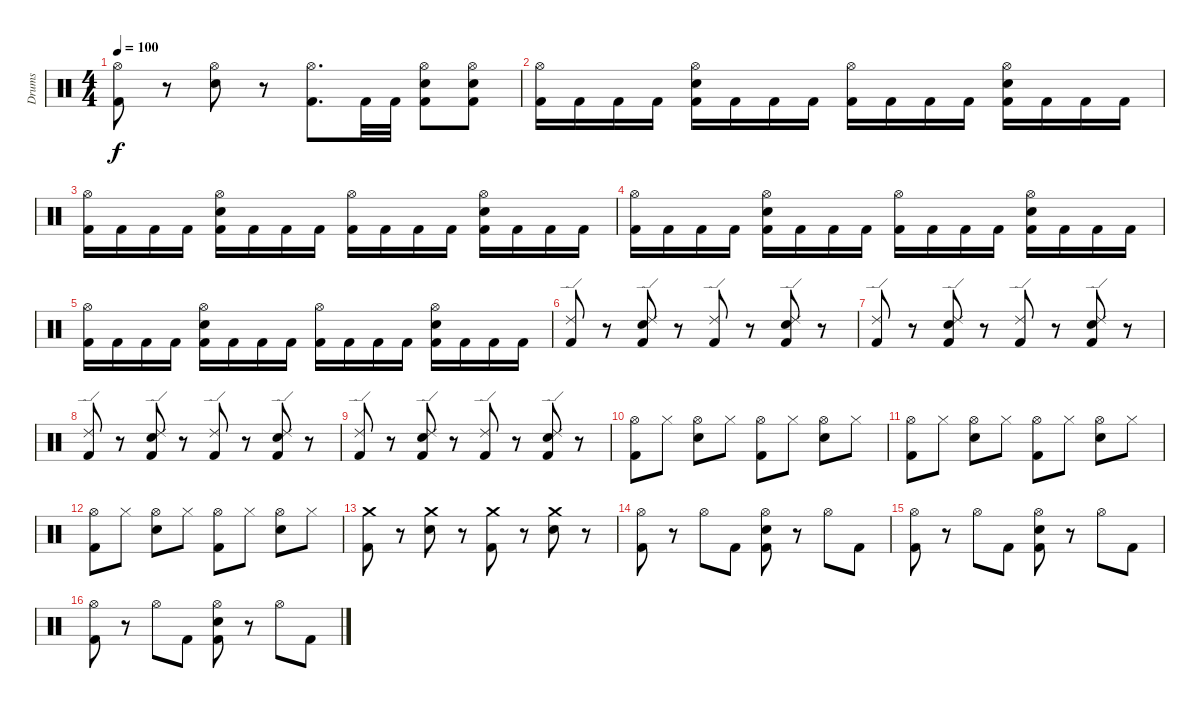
\track ("Drums" "Drums") {instrument percussion}
\staff {score}
\articulation defaults
\ts (4 4)
\tempo 100
\clef neutral
\ks c
("Hi-Hat (open)" "Kick (hit) 2").8{dy f} r.8 ("Hi-Hat (open)" "Snare (hit) 2").8 r.8 ("Hi-Hat (open)" "Kick (hit) 2").8{d} "Kick (hit) 2".32 "Kick (hit) 2".32 ("Hi-Hat (open)" "Snare (hit) 2" "Kick (hit) 2").8 ("Hi-Hat (open)" "Snare (hit) 2" "Kick (hit) 2").8 |
("Hi-Hat (open)" "Kick (hit) 2").16 "Kick (hit) 2".16 "Kick (hit) 2".16 "Kick (hit) 2".16 ("Hi-Hat (open)" "Snare (hit) 2" "Kick (hit) 2").16 "Kick (hit) 2".16 "Kick (hit) 2".16 "Kick (hit) 2".16 ("Hi-Hat (open)" "Kick (hit) 2").16 "Kick (hit) 2".16 "Kick (hit) 2".16 "Kick (hit) 2".16 ("Hi-Hat (open)" "Snare (hit) 2" "Kick (hit) 2").16 "Kick (hit) 2".16 "Kick (hit) 2".16 "Kick (hit) 2".16 |
("Hi-Hat (open)" "Kick (hit) 2").16 "Kick (hit) 2".16 "Kick (hit) 2".16 "Kick (hit) 2".16 ("Hi-Hat (open)" "Snare (hit) 2" "Kick (hit) 2").16 "Kick (hit) 2".16 "Kick (hit) 2".16 "Kick (hit) 2".16 ("Hi-Hat (open)" "Kick (hit) 2").16 "Kick (hit) 2".16 "Kick (hit) 2".16 "Kick (hit) 2".16 ("Hi-Hat (open)" "Snare (hit) 2" "Kick (hit) 2").16 "Kick (hit) 2".16 "Kick (hit) 2".16 "Kick (hit) 2".16 |
("Hi-Hat (open)" "Kick (hit) 2").16 "Kick (hit) 2".16 "Kick (hit) 2".16 "Kick (hit) 2".16 ("Hi-Hat (open)" "Snare (hit) 2" "Kick (hit) 2").16 "Kick (hit) 2".16 "Kick (hit) 2".16 "Kick (hit) 2".16 ("Hi-Hat (open)" "Kick (hit) 2").16 "Kick (hit) 2".16 "Kick (hit) 2".16 "Kick (hit) 2".16 ("Hi-Hat (open)" "Snare (hit) 2" "Kick (hit) 2").16 "Kick (hit) 2".16 "Kick (hit) 2".16 "Kick (hit) 2".16 |
("Hi-Hat (open)" "Kick (hit) 2").16 "Kick (hit) 2".16 "Kick (hit) 2".16 "Kick (hit) 2".16 ("Hi-Hat (open)" "Snare (hit) 2" "Kick (hit) 2").16 "Kick (hit) 2".16 "Kick (hit) 2".16 "Kick (hit) 2".16 ("Hi-Hat (open)" "Kick (hit) 2").16 "Kick (hit) 2".16 "Kick (hit) 2".16 "Kick (hit) 2".16 ("Hi-Hat (open)" "Snare (hit) 2" "Kick (hit) 2").16 "Kick (hit) 2".16 "Kick (hit) 2".16 "Kick (hit) 2".16 |
("Ride (edge) 2" "Kick (hit) 2").8 r.8 ("Ride (edge) 2" "Snare (hit) 2" "Kick (hit) 2").8 r.8 ("Ride (edge) 2" "Kick (hit) 2").8 r.8 ("Ride (edge) 2" "Snare (hit) 2" "Kick (hit) 2").8 r.8 |
("Ride (edge) 2" "Kick (hit) 2").8 r.8 ("Ride (edge) 2" "Snare (hit) 2" "Kick (hit) 2").8 r.8 ("Ride (edge) 2" "Kick (hit) 2").8 r.8 ("Ride (edge) 2" "Snare (hit) 2" "Kick (hit) 2").8 r.8 |
("Ride (edge) 2" "Kick (hit) 2").8 r.8 ("Ride (edge) 2" "Snare (hit) 2" "Kick (hit) 2").8 r.8 ("Ride (edge) 2" "Kick (hit) 2").8 r.8 ("Ride (edge) 2" "Snare (hit) 2" "Kick (hit) 2").8 r.8 |
("Ride (edge) 2" "Kick (hit) 2").8 r.8 ("Ride (edge) 2" "Snare (hit) 2" "Kick (hit) 2").8 r.8 ("Ride (edge) 2" "Kick (hit) 2").8 r.8 ("Ride (edge) 2" "Snare (hit) 2" "Kick (hit) 2").8 r.8 |
("Hi-Hat (open)" "Kick (hit) 2").8 "Hi-Hat (closed)".8 ("Hi-Hat (open)" "Snare (hit) 2").8 "Hi-Hat (closed)".8 ("Hi-Hat (open)" "Kick (hit) 2").8 "Hi-Hat (closed)".8 ("Hi-Hat (open)" "Snare (hit) 2").8 "Hi-Hat (closed)".8 |
("Hi-Hat (open)" "Kick (hit) 2").8 "Hi-Hat (closed)".8 ("Hi-Hat (open)" "Snare (hit) 2").8 "Hi-Hat (closed)".8 ("Hi-Hat (open)" "Kick (hit) 2").8 "Hi-Hat (closed)".8 ("Hi-Hat (open)" "Snare (hit) 2").8 "Hi-Hat (closed)".8 |
("Hi-Hat (open)" "Kick (hit) 2").8 "Hi-Hat (closed)".8 ("Hi-Hat (open)" "Snare (hit) 2").8 "Hi-Hat (closed)".8 ("Hi-Hat (open)" "Kick (hit) 2").8 "Hi-Hat (closed)".8 ("Hi-Hat (open)" "Snare (hit) 2").8 "Hi-Hat (closed)".8 |
("Crash medium (hit)" "Kick (hit) 2").8 r.8 ("Crash medium (hit)" "Snare (hit) 2").8 r.8 ("Crash medium (hit)" "Kick (hit) 2").8 r.8 ("Crash medium (hit)" "Snare (hit) 2").8 r.8 |
("Hi-Hat (open)" "Kick (hit) 2").8 r.8 "Hi-Hat (open)".8 "Kick (hit) 2".8 ("Hi-Hat (open)" "Snare (hit) 2" "Kick (hit) 2").8 r.8 "Hi-Hat (open)".8 "Kick (hit) 2".8 |
("Hi-Hat (open)" "Kick (hit) 2").8 r.8 "Hi-Hat (open)".8 "Kick (hit) 2".8 ("Hi-Hat (open)" "Snare (hit) 2" "Kick (hit) 2").8 r.8 "Hi-Hat (open)".8 "Kick (hit) 2".8 |
("Hi-Hat (open)" "Kick (hit) 2").8 r.8 "Hi-Hat (open)".8 "Kick (hit) 2".8 ("Hi-Hat (open)" "Snare (hit) 2" "Kick (hit) 2").8 r.8 "Hi-Hat (open)".8 "Kick (hit) 2".8
